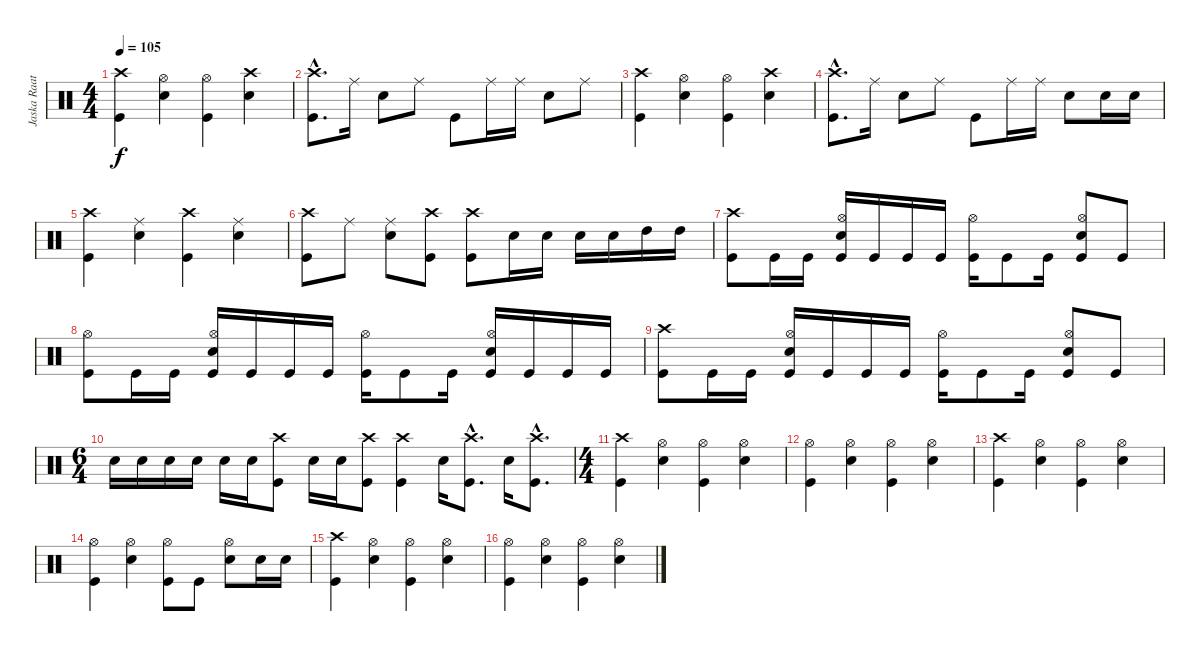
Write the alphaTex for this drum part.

\track ("Jaska Raatikainen" "Jaska Raat") {instrument percussion}
\staff {score}
\articulation defaults
\ts (4 4)
\tempo 105
\clef neutral
\ks c
("Crash high (hit)" "Kick (hit)").4{dy f} ("Hi-Hat (open)" "Snare (hit) 2").4 ("Hi-Hat (open)" "Kick (hit)").4 ("Crash high (hit)" "Snare (hit) 2").4 |
("Crash high (hit)"{hac} "Kick (hit)"{hac}).8{d} "Ride (middle)".16 "Snare (hit) 2".8 "Ride (middle)".8 "Kick (hit)".8 "Ride (middle)".16 "Ride (middle)".16 "Snare (hit) 2".8 "Ride (middle)".8 |
("Crash high (hit)" "Kick (hit)").4 ("Hi-Hat (open)" "Snare (hit) 2").4 ("Hi-Hat (open)" "Kick (hit)").4 ("Crash high (hit)" "Snare (hit) 2").4 |
("Crash high (hit)"{hac} "Kick (hit)"{hac}).8{d} "Ride (middle)".16 "Snare (hit) 2".8 "Ride (middle)".8 "Kick (hit)".8 "Ride (middle)".16 "Ride (middle)".16 "Snare (hit) 2".8 "Snare (hit) 2".16 "Snare (hit) 2".16 |
("Crash high (hit)" "Kick (hit)").4 ("Ride (middle)" "Snare (hit) 2").4 ("Crash high (hit)" "Kick (hit)").4 ("Ride (middle)" "Snare (hit) 2").4 |
("Crash high (hit)" "Kick (hit)").8 "Ride (middle)".8 ("Ride (middle)" "Snare (hit) 2").8 ("Crash high (hit)" "Kick (hit)").8 ("Crash high (hit)" "Kick (hit)").8 "Snare (hit) 2".16 "Snare (hit) 2".16 "Snare (hit) 2".16 "Snare (hit) 2".16 "High Tom (hit)".16 "High Tom (hit)".16 |
("Crash high (hit)" "Kick (hit)").8 "Kick (hit)".16 "Kick (hit)".16 ("Hi-Hat (open)" "Snare (hit) 2" "Kick (hit)").16 "Kick (hit)".16 "Kick (hit)".16 "Kick (hit)".16 ("Hi-Hat (open)" "Kick (hit)").16 "Kick (hit)".8 "Kick (hit)".16 ("Hi-Hat (open)" "Snare (hit) 2" "Kick (hit)").8 "Kick (hit)".8 |
("Hi-Hat (open)" "Kick (hit)").8 "Kick (hit)".16 "Kick (hit)".16 ("Hi-Hat (open)" "Snare (hit) 2" "Kick (hit)").16 "Kick (hit)".16 "Kick (hit)".16 "Kick (hit)".16 ("Hi-Hat (open)" "Kick (hit)").16 "Kick (hit)".8 "Kick (hit)".16 ("Hi-Hat (open)" "Snare (hit) 2" "Kick (hit)").16 "Kick (hit)".16 "Kick (hit)".16 "Kick (hit)".16 |
("Crash high (hit)" "Kick (hit)").8 "Kick (hit)".16 "Kick (hit)".16 ("Hi-Hat (open)" "Snare (hit) 2" "Kick (hit)").16 "Kick (hit)".16 "Kick (hit)".16 "Kick (hit)".16 ("Hi-Hat (open)" "Kick (hit)").16 "Kick (hit)".8 "Kick (hit)".16 ("Hi-Hat (open)" "Snare (hit) 2" "Kick (hit)").8 "Kick (hit)".8 |
\ts (6 4)
"Snare (hit) 2".16 "Snare (hit) 2".16 "Snare (hit) 2".16 "Snare (hit) 2".16 "Snare (hit) 2".16 "Snare (hit) 2".16 ("Crash high (hit)" "Kick (hit)").8 "Snare (hit) 2".16 "Snare (hit) 2".16 ("Crash high (hit)" "Kick (hit)").8 ("Crash high (hit)" "Kick (hit)").4 "Snare (hit) 2".16 ("Crash high (hit)"{hac} "Kick (hit)"{hac}).8{d} "Snare (hit) 2".16 ("Crash high (hit)"{hac} "Kick (hit)"{hac}).8{d} |
\ts (4 4)
("Crash high (hit)" "Kick (hit)").4 ("Hi-Hat (open)" "Snare (hit) 2").4 ("Hi-Hat (open)" "Kick (hit)").4 ("Hi-Hat (open)" "Snare (hit) 2").4 |
("Hi-Hat (open)" "Kick (hit)").4 ("Hi-Hat (open)" "Snare (hit) 2").4 ("Hi-Hat (open)" "Kick (hit)").4 ("Hi-Hat (open)" "Snare (hit) 2").4 |
("Crash high (hit)" "Kick (hit)").4 ("Hi-Hat (open)" "Snare (hit) 2").4 ("Hi-Hat (open)" "Kick (hit)").4 ("Hi-Hat (open)" "Snare (hit) 2").4 |
("Hi-Hat (open)" "Kick (hit)").4 ("Hi-Hat (open)" "Snare (hit) 2").4 ("Hi-Hat (open)" "Kick (hit)").8 "Kick (hit)".8 ("Hi-Hat (open)" "Snare (hit) 2").8 "Snare (hit) 2".16 "Snare (hit) 2".16 |
("Crash high (hit)" "Kick (hit)").4 ("Hi-Hat (open)" "Snare (hit) 2").4 ("Hi-Hat (open)" "Kick (hit)").4 ("Hi-Hat (open)" "Snare (hit) 2").4 |
("Hi-Hat (open)" "Kick (hit)").4 ("Hi-Hat (open)" "Snare (hit) 2").4 ("Hi-Hat (open)" "Kick (hit)").4 ("Hi-Hat (open)" "Snare (hit) 2").4
